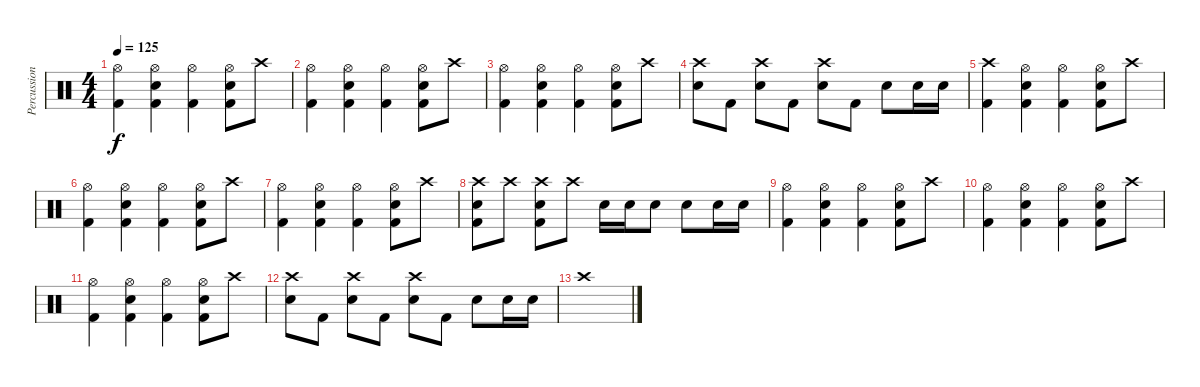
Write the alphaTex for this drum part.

\track ("Percussion" "Percussion") {instrument percussion}
\staff {score}
\articulation defaults
\ts (4 4)
\tempo 125
\clef neutral
\ks c
("Hi-Hat (open)" "Kick (hit) 2").4{dy f} ("Hi-Hat (open)" "Snare (hit) 2" "Kick (hit) 2").4 ("Hi-Hat (open)" "Kick (hit) 2").4 ("Hi-Hat (open)" "Snare (hit) 2" "Kick (hit) 2").8 "Crash high (hit)".8 |
("Hi-Hat (open)" "Kick (hit) 2").4 ("Hi-Hat (open)" "Snare (hit) 2" "Kick (hit) 2").4 ("Hi-Hat (open)" "Kick (hit) 2").4 ("Hi-Hat (open)" "Snare (hit) 2" "Kick (hit) 2").8 "Crash high (hit)".8 |
("Hi-Hat (open)" "Kick (hit) 2").4 ("Hi-Hat (open)" "Snare (hit) 2" "Kick (hit) 2").4 ("Hi-Hat (open)" "Kick (hit) 2").4 ("Hi-Hat (open)" "Snare (hit) 2" "Kick (hit) 2").8 "Crash high (hit)".8 |
("Crash high (hit)" "Snare (hit) 2").8 "Kick (hit) 2".8 ("Crash high (hit)" "Snare (hit) 2").8 "Kick (hit) 2".8 ("Crash high (hit)" "Snare (hit) 2").8 "Kick (hit) 2".8 "Snare (hit) 2".8 "Snare (hit) 2".16 "Snare (hit) 2".16 |
("Crash high (hit)" "Kick (hit) 2").4 ("Hi-Hat (open)" "Snare (hit) 2" "Kick (hit) 2").4 ("Hi-Hat (open)" "Kick (hit) 2").4 ("Hi-Hat (open)" "Snare (hit) 2" "Kick (hit) 2").8 "Crash high (hit)".8 |
("Hi-Hat (open)" "Kick (hit) 2").4 ("Hi-Hat (open)" "Snare (hit) 2" "Kick (hit) 2").4 ("Hi-Hat (open)" "Kick (hit) 2").4 ("Hi-Hat (open)" "Snare (hit) 2" "Kick (hit) 2").8 "Crash high (hit)".8 |
("Hi-Hat (open)" "Kick (hit) 2").4 ("Hi-Hat (open)" "Snare (hit) 2" "Kick (hit) 2").4 ("Hi-Hat (open)" "Kick (hit) 2").4 ("Hi-Hat (open)" "Snare (hit) 2" "Kick (hit) 2").8 "Crash high (hit)".8 |
("Crash high (hit)" "Snare (hit) 2" "Kick (hit) 2").8 "Crash high (hit)".8 ("Crash high (hit)" "Snare (hit) 2" "Kick (hit) 2").8 "Crash high (hit)".8 "Snare (hit) 2".16 "Snare (hit) 2".16 "Snare (hit) 2".8 "Snare (hit) 2".8 "Snare (hit) 2".16 "Snare (hit) 2".16 |
("Hi-Hat (open)" "Kick (hit) 2").4 ("Hi-Hat (open)" "Snare (hit) 2" "Kick (hit) 2").4 ("Hi-Hat (open)" "Kick (hit) 2").4 ("Hi-Hat (open)" "Snare (hit) 2" "Kick (hit) 2").8 "Crash high (hit)".8 |
("Hi-Hat (open)" "Kick (hit) 2").4 ("Hi-Hat (open)" "Snare (hit) 2" "Kick (hit) 2").4 ("Hi-Hat (open)" "Kick (hit) 2").4 ("Hi-Hat (open)" "Snare (hit) 2" "Kick (hit) 2").8 "Crash high (hit)".8 |
("Hi-Hat (open)" "Kick (hit) 2").4 ("Hi-Hat (open)" "Snare (hit) 2" "Kick (hit) 2").4 ("Hi-Hat (open)" "Kick (hit) 2").4 ("Hi-Hat (open)" "Snare (hit) 2" "Kick (hit) 2").8 "Crash high (hit)".8 |
("Crash high (hit)" "Snare (hit) 2").8 "Kick (hit) 2".8 ("Crash high (hit)" "Snare (hit) 2").8 "Kick (hit) 2".8 ("Crash high (hit)" "Snare (hit) 2").8 "Kick (hit) 2".8 "Snare (hit) 2".8 "Snare (hit) 2".16 "Snare (hit) 2".16 |
"Crash high (hit)".1
